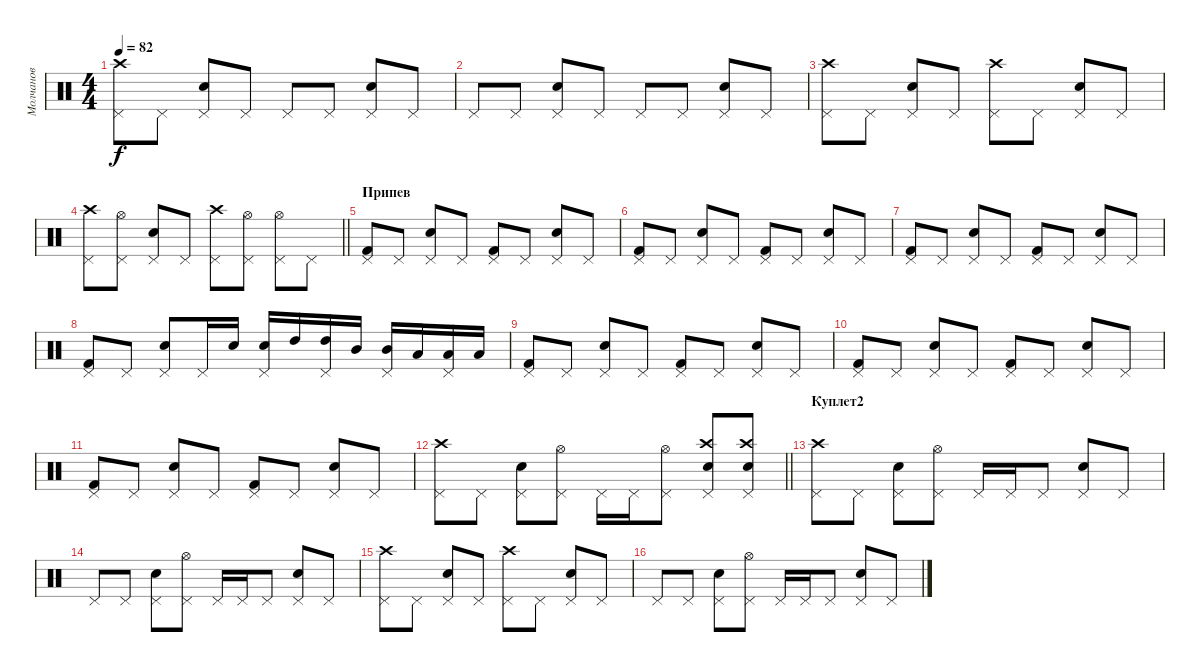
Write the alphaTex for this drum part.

\track ("Молчанов" "Молчанов") {instrument percussion}
\staff {score}
\articulation defaults
\ts (4 4)
\tempo 82
\clef neutral
\ks c
("Pedal Hi-Hat (hit)" "Crash high (hit)").8{dy f} "Pedal Hi-Hat (hit)".8 ("Pedal Hi-Hat (hit)" "Electric Snare (hit)").8 "Pedal Hi-Hat (hit)".8 "Pedal Hi-Hat (hit)".8 "Pedal Hi-Hat (hit)".8 ("Pedal Hi-Hat (hit)" "Electric Snare (hit)").8 "Pedal Hi-Hat (hit)".8 |
"Pedal Hi-Hat (hit)".8 "Pedal Hi-Hat (hit)".8 ("Pedal Hi-Hat (hit)" "Electric Snare (hit)").8 "Pedal Hi-Hat (hit)".8 "Pedal Hi-Hat (hit)".8 "Pedal Hi-Hat (hit)".8 ("Pedal Hi-Hat (hit)" "Electric Snare (hit)").8 "Pedal Hi-Hat (hit)".8 |
("Pedal Hi-Hat (hit)" "Crash high (hit)").8 "Pedal Hi-Hat (hit)".8 ("Pedal Hi-Hat (hit)" "Electric Snare (hit)").8 "Pedal Hi-Hat (hit)".8 ("Pedal Hi-Hat (hit)" "Crash high (hit)").8 "Pedal Hi-Hat (hit)".8 ("Pedal Hi-Hat (hit)" "Electric Snare (hit)").8 "Pedal Hi-Hat (hit)".8 |
\barLineRight lightlight
("Pedal Hi-Hat (hit)" "Crash high (hit)").8 ("Pedal Hi-Hat (hit)" "Hi-Hat (open)").8 ("Pedal Hi-Hat (hit)" "Electric Snare (hit)").8 "Pedal Hi-Hat (hit)".8 ("Pedal Hi-Hat (hit)" "Crash high (hit)").8 ("Pedal Hi-Hat (hit)" "Hi-Hat (open)").8 ("Pedal Hi-Hat (hit)" "Hi-Hat (open)").8 "Pedal Hi-Hat (hit)".8 |
\section ("" "Припев")
("Pedal Hi-Hat (hit)" "Kick (hit) 2").8 "Pedal Hi-Hat (hit)".8 ("Pedal Hi-Hat (hit)" "Electric Snare (hit)").8 "Pedal Hi-Hat (hit)".8 ("Pedal Hi-Hat (hit)" "Kick (hit) 2").8 "Pedal Hi-Hat (hit)".8 ("Pedal Hi-Hat (hit)" "Electric Snare (hit)").8 "Pedal Hi-Hat (hit)".8 |
("Pedal Hi-Hat (hit)" "Kick (hit) 2").8 "Pedal Hi-Hat (hit)".8 ("Pedal Hi-Hat (hit)" "Electric Snare (hit)").8 "Pedal Hi-Hat (hit)".8 ("Pedal Hi-Hat (hit)" "Kick (hit) 2").8 "Pedal Hi-Hat (hit)".8 ("Pedal Hi-Hat (hit)" "Electric Snare (hit)").8 "Pedal Hi-Hat (hit)".8 |
("Pedal Hi-Hat (hit)" "Kick (hit) 2").8 "Pedal Hi-Hat (hit)".8 ("Pedal Hi-Hat (hit)" "Electric Snare (hit)").8 "Pedal Hi-Hat (hit)".8 ("Pedal Hi-Hat (hit)" "Kick (hit) 2").8 "Pedal Hi-Hat (hit)".8 ("Pedal Hi-Hat (hit)" "Electric Snare (hit)").8 "Pedal Hi-Hat (hit)".8 |
("Pedal Hi-Hat (hit)" "Kick (hit) 2").8 "Pedal Hi-Hat (hit)".8 ("Pedal Hi-Hat (hit)" "Electric Snare (hit)").8 "Pedal Hi-Hat (hit)".16 "Electric Snare (hit)".16 ("Pedal Hi-Hat (hit)" "Electric Snare (hit)").16 "High Tom (hit)".16 ("Pedal Hi-Hat (hit)" "High Tom (hit)").16 "Mid Tom (hit)".16 ("Pedal Hi-Hat (hit)" "Mid Tom (hit)").16 "Low Tom (hit)".16 ("Pedal Hi-Hat (hit)" "Low Tom (hit)").16 "Low Tom (hit)".16 |
("Pedal Hi-Hat (hit)" "Kick (hit) 2").8 "Pedal Hi-Hat (hit)".8 ("Pedal Hi-Hat (hit)" "Electric Snare (hit)").8 "Pedal Hi-Hat (hit)".8 ("Pedal Hi-Hat (hit)" "Kick (hit) 2").8 "Pedal Hi-Hat (hit)".8 ("Pedal Hi-Hat (hit)" "Electric Snare (hit)").8 "Pedal Hi-Hat (hit)".8 |
("Pedal Hi-Hat (hit)" "Kick (hit) 2").8 "Pedal Hi-Hat (hit)".8 ("Pedal Hi-Hat (hit)" "Electric Snare (hit)").8 "Pedal Hi-Hat (hit)".8 ("Pedal Hi-Hat (hit)" "Kick (hit) 2").8 "Pedal Hi-Hat (hit)".8 ("Pedal Hi-Hat (hit)" "Electric Snare (hit)").8 "Pedal Hi-Hat (hit)".8 |
("Pedal Hi-Hat (hit)" "Kick (hit) 2").8 "Pedal Hi-Hat (hit)".8 ("Pedal Hi-Hat (hit)" "Electric Snare (hit)").8 "Pedal Hi-Hat (hit)".8 ("Pedal Hi-Hat (hit)" "Kick (hit) 2").8 "Pedal Hi-Hat (hit)".8 ("Pedal Hi-Hat (hit)" "Electric Snare (hit)").8 "Pedal Hi-Hat (hit)".8 |
\barLineRight lightlight
("Pedal Hi-Hat (hit)" "Crash high (hit)").8 "Pedal Hi-Hat (hit)".8 ("Pedal Hi-Hat (hit)" "Electric Snare (hit)").8 ("Pedal Hi-Hat (hit)" "Hi-Hat (open)").8 "Pedal Hi-Hat (hit)".16 "Pedal Hi-Hat (hit)".16 ("Pedal Hi-Hat (hit)" "Hi-Hat (open)").8 ("Pedal Hi-Hat (hit)" "Crash high (hit)" "Electric Snare (hit)").8 ("Pedal Hi-Hat (hit)" "Crash high (hit)" "Electric Snare (hit)").8 |
\section ("" "Куплет2")
("Pedal Hi-Hat (hit)" "Crash high (hit)").8 "Pedal Hi-Hat (hit)".8 ("Pedal Hi-Hat (hit)" "Electric Snare (hit)").8 ("Pedal Hi-Hat (hit)" "Hi-Hat (open)").8 "Pedal Hi-Hat (hit)".16 "Pedal Hi-Hat (hit)".16 "Pedal Hi-Hat (hit)".8 ("Pedal Hi-Hat (hit)" "Electric Snare (hit)").8 "Pedal Hi-Hat (hit)".8 |
"Pedal Hi-Hat (hit)".8 "Pedal Hi-Hat (hit)".8 ("Pedal Hi-Hat (hit)" "Electric Snare (hit)").8 ("Pedal Hi-Hat (hit)" "Hi-Hat (open)").8 "Pedal Hi-Hat (hit)".16 "Pedal Hi-Hat (hit)".16 "Pedal Hi-Hat (hit)".8 ("Pedal Hi-Hat (hit)" "Electric Snare (hit)").8 "Pedal Hi-Hat (hit)".8 |
("Pedal Hi-Hat (hit)" "Crash high (hit)").8 "Pedal Hi-Hat (hit)".8 ("Pedal Hi-Hat (hit)" "Electric Snare (hit)").8 "Pedal Hi-Hat (hit)".8 ("Pedal Hi-Hat (hit)" "Crash high (hit)").8 "Pedal Hi-Hat (hit)".8 ("Pedal Hi-Hat (hit)" "Electric Snare (hit)").8 "Pedal Hi-Hat (hit)".8 |
"Pedal Hi-Hat (hit)".8 "Pedal Hi-Hat (hit)".8 ("Pedal Hi-Hat (hit)" "Electric Snare (hit)").8 ("Pedal Hi-Hat (hit)" "Hi-Hat (open)").8 "Pedal Hi-Hat (hit)".16 "Pedal Hi-Hat (hit)".16 "Pedal Hi-Hat (hit)".8 ("Pedal Hi-Hat (hit)" "Electric Snare (hit)").8 "Pedal Hi-Hat (hit)".8
